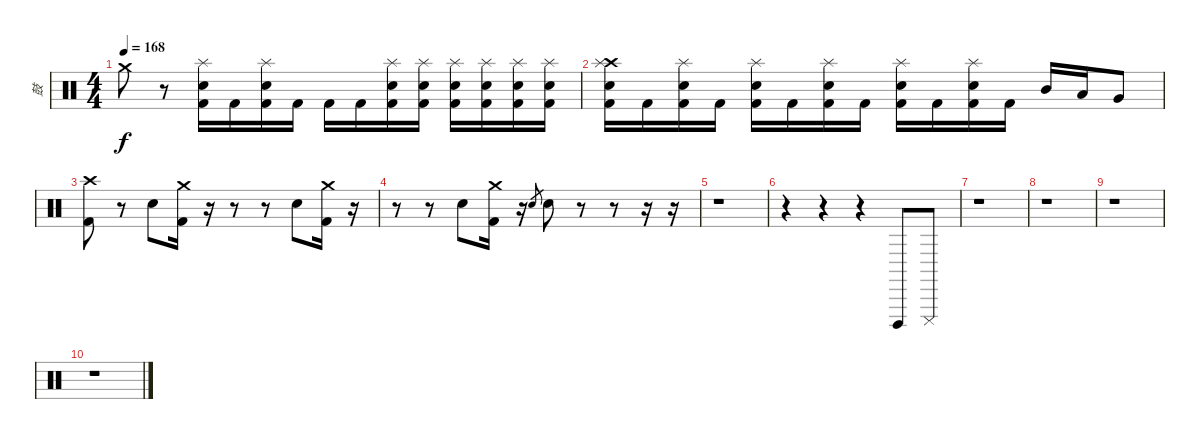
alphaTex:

\track ("鼓" "鼓") {instrument percussion}
\staff {score}
\articulation defaults
\ts (4 4)
\tempo 168
\clef neutral
\ks c "Crash medium (hit)".8{dy f}
r.8 ("Splash (hit)" "Electric Snare (hit)" "Kick (hit) 2").16 "Kick (hit) 2".16 ("Splash (hit)" "Electric Snare (hit)" "Kick (hit) 2").16 "Kick (hit) 2".16 "Kick (hit) 2".16 "Kick (hit) 2".16 ("Splash (hit)" "Electric Snare (hit)" "Kick (hit) 2").16 ("Splash (hit)" "Electric Snare (hit)" "Kick (hit) 2").16 ("Splash (hit)" "Electric Snare (hit)" "Kick (hit) 2").16 ("Splash (hit)" "Electric Snare (hit)" "Kick (hit) 2").16 ("Splash (hit)" "Electric Snare (hit)" "Kick (hit) 2").16 ("Splash (hit)" "Electric Snare (hit)" "Kick (hit) 2").16 |
("Crash high (hit)" "Splash (hit)" "Electric Snare (hit)" "Kick (hit) 2").16 "Kick (hit) 2".16 ("Splash (hit)" "Electric Snare (hit)" "Kick (hit) 2").16 "Kick (hit) 2".16 ("Splash (hit)" "Electric Snare (hit)" "Kick (hit) 2").16 "Kick (hit) 2".16 ("Splash (hit)" "Electric Snare (hit)" "Kick (hit) 2").16 "Kick (hit) 2".16 ("Splash (hit)" "Electric Snare (hit)" "Kick (hit) 2").16 "Kick (hit) 2".16 ("Splash (hit)" "Electric Snare (hit)" "Kick (hit) 2").16 "Kick (hit) 2".16 "Mid Tom (hit)".16 "Low Tom (hit)".16 "Very Low Tom (hit)".8 |
("Crash high (hit)" "Kick (hit) 2").8 r.8 "Snare (hit) 2".8 ("Crash medium (hit)" "Kick (hit) 2").16 r.16 r.8 r.8 "Snare (hit) 2".8 ("Crash medium (hit)" "Kick (hit) 2").16 r.16 |
r.8 r.8 "Snare (hit) 2".8 ("Crash medium (hit)" "Kick (hit) 2").16 r.16 "Snare (hit) 2".8{gr} "Snare (hit) 2".8 r.8 r.8 r.16 r.16 |
r.1 |
r.4 r.4 r.4 "Cuica (open)".8 "Cuica (mute)".8 |
r.1 |
r.1 |
r.1 |
r.1
